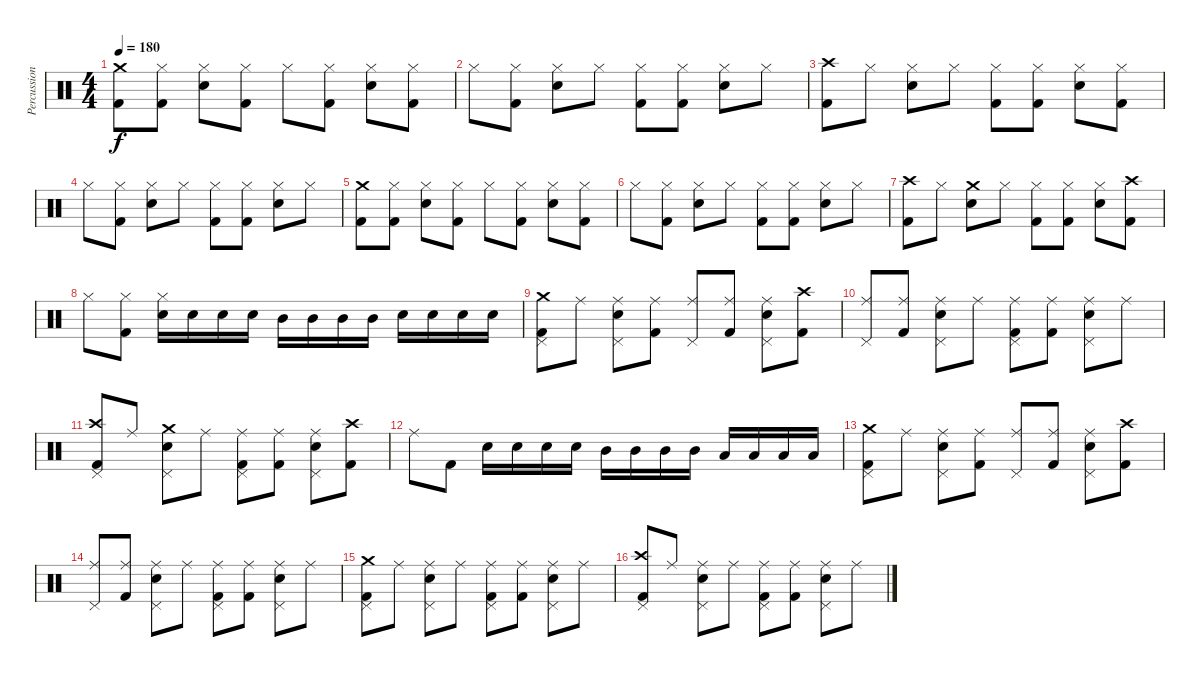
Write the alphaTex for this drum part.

\track ("Percussion" "Percussion") {instrument percussion}
\staff {score}
\articulation defaults
\ts (4 4)
\tempo 180
\clef neutral
\ks c
("Crash medium (hit)" "Kick (hit) 2").8{dy f} ("Hi-Hat (closed)" "Kick (hit) 2").8 ("Hi-Hat (closed)" "Electric Snare (hit)").8 ("Hi-Hat (closed)" "Kick (hit) 2").8 "Hi-Hat (closed)".8 ("Hi-Hat (closed)" "Kick (hit) 2").8 ("Hi-Hat (closed)" "Electric Snare (hit)").8 ("Hi-Hat (closed)" "Kick (hit) 2").8 |
"Hi-Hat (closed)".8 ("Hi-Hat (closed)" "Kick (hit) 2").8 ("Hi-Hat (closed)" "Electric Snare (hit)").8 "Hi-Hat (closed)".8 ("Hi-Hat (closed)" "Kick (hit) 2").8 ("Hi-Hat (closed)" "Kick (hit) 2").8 ("Hi-Hat (closed)" "Electric Snare (hit)").8 "Hi-Hat (closed)".8 |
("Crash high (hit)" "Kick (hit) 2").8 "Hi-Hat (closed)".8 ("Hi-Hat (closed)" "Electric Snare (hit)").8 "Hi-Hat (closed)".8 ("Hi-Hat (closed)" "Kick (hit) 2").8 ("Hi-Hat (closed)" "Kick (hit) 2").8 ("Hi-Hat (closed)" "Electric Snare (hit)").8 ("Hi-Hat (closed)" "Kick (hit) 2").8 |
"Hi-Hat (closed)".8 ("Hi-Hat (closed)" "Kick (hit) 2").8 ("Hi-Hat (closed)" "Electric Snare (hit)").8 "Hi-Hat (closed)".8 ("Hi-Hat (closed)" "Kick (hit) 2").8 ("Hi-Hat (closed)" "Kick (hit) 2").8 ("Hi-Hat (closed)" "Electric Snare (hit)").8 "Hi-Hat (closed)".8 |
("Crash medium (hit)" "Kick (hit) 2").8 ("Hi-Hat (closed)" "Kick (hit) 2").8 ("Hi-Hat (closed)" "Electric Snare (hit)").8 ("Hi-Hat (closed)" "Kick (hit) 2").8 "Hi-Hat (closed)".8 ("Hi-Hat (closed)" "Kick (hit) 2").8 ("Hi-Hat (closed)" "Electric Snare (hit)").8 ("Hi-Hat (closed)" "Kick (hit) 2").8 |
"Hi-Hat (closed)".8 ("Hi-Hat (closed)" "Kick (hit) 2").8 ("Hi-Hat (closed)" "Electric Snare (hit)").8 "Hi-Hat (closed)".8 ("Hi-Hat (closed)" "Kick (hit) 2").8 ("Hi-Hat (closed)" "Kick (hit) 2").8 ("Hi-Hat (closed)" "Electric Snare (hit)").8 "Hi-Hat (closed)".8 |
("Crash high (hit)" "Kick (hit) 2").8 "Hi-Hat (closed)".8 ("Crash medium (hit)" "Electric Snare (hit)").8 "Hi-Hat (closed)".8 ("Hi-Hat (closed)" "Kick (hit) 2").8 ("Hi-Hat (closed)" "Kick (hit) 2").8 ("Hi-Hat (closed)" "Electric Snare (hit)").8 ("Crash high (hit)" "Kick (hit) 2").8 |
"Hi-Hat (closed)".8 ("Hi-Hat (closed)" "Kick (hit) 2").8 ("Hi-Hat (closed)" "Electric Snare (hit)").16 "Electric Snare (hit)".16 "Electric Snare (hit)".16 "Electric Snare (hit)".16 "Mid Tom (hit)".16 "Mid Tom (hit)".16 "Mid Tom (hit)".16 "Mid Tom (hit)".16 "Electric Snare (hit)".16 "Electric Snare (hit)".16 "Electric Snare (hit)".16 "Electric Snare (hit)".16 |
("Crash medium (hit)" "Pedal Hi-Hat (hit)" "Kick (hit) 2").8 "Ride (middle)".8 ("Ride (middle)" "Pedal Hi-Hat (hit)" "Electric Snare (hit)").8 ("Ride (middle)" "Kick (hit) 2").8 ("Ride (middle)" "Pedal Hi-Hat (hit)").8 ("Ride (middle)" "Kick (hit) 2").8 ("Ride (middle)" "Pedal Hi-Hat (hit)" "Electric Snare (hit)").8 ("Crash high (hit)" "Kick (hit) 2").8 |
("Ride (middle)" "Pedal Hi-Hat (hit)").8 ("Ride (middle)" "Kick (hit) 2").8 ("Ride (middle)" "Pedal Hi-Hat (hit)" "Electric Snare (hit)").8 "Ride (middle)".8 ("Ride (middle)" "Pedal Hi-Hat (hit)" "Kick (hit) 2").8 ("Ride (middle)" "Kick (hit) 2").8 ("Ride (middle)" "Pedal Hi-Hat (hit)" "Electric Snare (hit)").8 "Ride (middle)".8 |
("Crash high (hit)" "Pedal Hi-Hat (hit)" "Kick (hit) 2").8 "Ride (middle)".8 ("Crash medium (hit)" "Pedal Hi-Hat (hit)" "Electric Snare (hit)").8 "Ride (middle)".8 ("Ride (middle)" "Pedal Hi-Hat (hit)" "Kick (hit) 2").8 ("Ride (middle)" "Kick (hit) 2").8 ("Ride (middle)" "Pedal Hi-Hat (hit)" "Electric Snare (hit)").8 ("Crash high (hit)" "Kick (hit) 2").8 |
"Ride (middle)".8 "Kick (hit) 2".8 "Electric Snare (hit)".16 "Electric Snare (hit)".16 "Electric Snare (hit)".16 "Electric Snare (hit)".16 "Mid Tom (hit)".16 "Mid Tom (hit)".16 "Mid Tom (hit)".16 "Mid Tom (hit)".16 "Low Tom (hit)".16 "Low Tom (hit)".16 "Low Tom (hit)".16 "Low Tom (hit)".16 |
("Crash medium (hit)" "Pedal Hi-Hat (hit)" "Kick (hit) 2").8 "Ride (middle)".8 ("Ride (middle)" "Pedal Hi-Hat (hit)" "Electric Snare (hit)").8 ("Ride (middle)" "Kick (hit) 2").8 ("Ride (middle)" "Pedal Hi-Hat (hit)").8 ("Ride (middle)" "Kick (hit) 2").8 ("Ride (middle)" "Pedal Hi-Hat (hit)" "Electric Snare (hit)").8 ("Crash high (hit)" "Kick (hit) 2").8 |
("Ride (middle)" "Pedal Hi-Hat (hit)").8 ("Ride (middle)" "Kick (hit) 2").8 ("Ride (middle)" "Pedal Hi-Hat (hit)" "Electric Snare (hit)").8 "Ride (middle)".8 ("Ride (middle)" "Pedal Hi-Hat (hit)" "Kick (hit) 2").8 ("Ride (middle)" "Kick (hit) 2").8 ("Ride (middle)" "Pedal Hi-Hat (hit)" "Electric Snare (hit)").8 "Ride (middle)".8 |
("Crash medium (hit)" "Pedal Hi-Hat (hit)" "Kick (hit) 2").8 "Ride (middle)".8 ("Ride (middle)" "Pedal Hi-Hat (hit)" "Electric Snare (hit)").8 "Ride (middle)".8 ("Ride (middle)" "Pedal Hi-Hat (hit)" "Kick (hit) 2").8 ("Ride (middle)" "Kick (hit) 2").8 ("Ride (middle)" "Pedal Hi-Hat (hit)" "Electric Snare (hit)").8 "Ride (middle)".8 |
("Crash high (hit)" "Pedal Hi-Hat (hit)" "Kick (hit) 2").8 "Ride (middle)".8 ("Ride (middle)" "Pedal Hi-Hat (hit)" "Electric Snare (hit)").8 "Ride (middle)".8 ("Ride (middle)" "Pedal Hi-Hat (hit)" "Kick (hit) 2").8 ("Ride (middle)" "Kick (hit) 2").8 ("Ride (middle)" "Pedal Hi-Hat (hit)" "Electric Snare (hit)").8 "Ride (middle)".8
